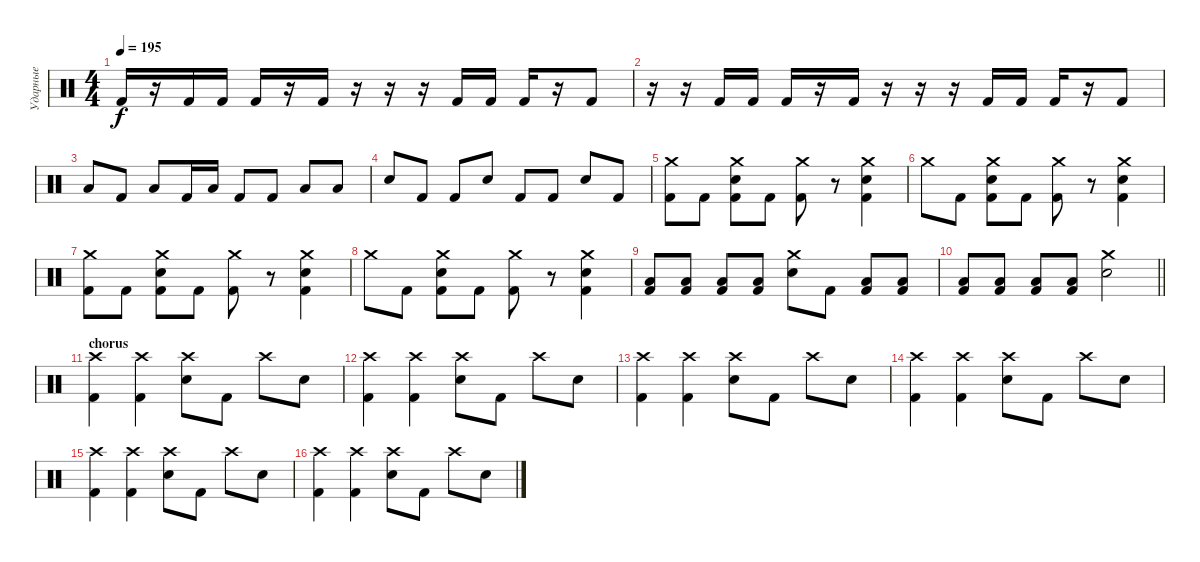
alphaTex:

\track ("Ударные" "Ударные") {instrument percussion}
\staff {score}
\articulation defaults
\ts (4 4)
\tempo 195
\clef neutral
\ks c "Kick (hit) 2".16{dy f}
r.16 "Kick (hit) 2".16 "Kick (hit) 2".16 "Kick (hit) 2".16 r.16 "Kick (hit) 2".16 r.16 r.16 r.16 "Kick (hit) 2".16 "Kick (hit) 2".16 "Kick (hit) 2".16 r.16 "Kick (hit) 2".8 |
r.16 r.16 "Kick (hit) 2".16 "Kick (hit) 2".16 "Kick (hit) 2".16 r.16 "Kick (hit) 2".16 r.16 r.16 r.16 "Kick (hit) 2".16 "Kick (hit) 2".16 "Kick (hit) 2".16 r.16 "Kick (hit) 2".8 |
"Low Tom (hit)".8 "Kick (hit) 2".8 "Low Tom (hit)".8 "Kick (hit) 2".16 "Low Tom (hit)".16 "Kick (hit) 2".8 "Kick (hit) 2".8 "Low Tom (hit)".8 "Low Tom (hit)".8 |
"Electric Snare (hit)".8 "Kick (hit) 2".8 "Kick (hit) 2".8 "Electric Snare (hit)".8 "Kick (hit) 2".8 "Kick (hit) 2".8 "Electric Snare (hit)".8 "Kick (hit) 2".8 |
("Crash medium (hit)" "Kick (hit) 2").8 "Kick (hit) 2".8 ("Crash medium (hit)" "Electric Snare (hit)" "Kick (hit) 2").8 "Kick (hit) 2".8 ("Crash medium (hit)" "Kick (hit) 2").8 r.8 ("Crash medium (hit)" "Electric Snare (hit)" "Kick (hit) 2").4 |
"Crash medium (hit)".8 "Kick (hit) 2".8 ("Crash medium (hit)" "Electric Snare (hit)" "Kick (hit) 2").8 "Kick (hit) 2".8 ("Crash medium (hit)" "Kick (hit) 2").8 r.8 ("Crash medium (hit)" "Electric Snare (hit)" "Kick (hit) 2").4 |
("Crash medium (hit)" "Kick (hit) 2").8 "Kick (hit) 2".8 ("Crash medium (hit)" "Electric Snare (hit)" "Kick (hit) 2").8 "Kick (hit) 2".8 ("Crash medium (hit)" "Kick (hit) 2").8 r.8 ("Crash medium (hit)" "Electric Snare (hit)" "Kick (hit) 2").4 |
"Crash medium (hit)".8 "Kick (hit) 2".8 ("Crash medium (hit)" "Electric Snare (hit)" "Kick (hit) 2").8 "Kick (hit) 2".8 ("Crash medium (hit)" "Kick (hit) 2").8 r.8 ("Crash medium (hit)" "Electric Snare (hit)" "Kick (hit) 2").4 |
("Low Tom (hit)" "Kick (hit) 2").8 ("Low Tom (hit)" "Kick (hit) 2").8 ("Low Tom (hit)" "Kick (hit) 2").8 ("Low Tom (hit)" "Kick (hit) 2").8 ("Crash medium (hit)" "Electric Snare (hit)").8 "Kick (hit) 2".8 ("Low Tom (hit)" "Kick (hit) 2").8 ("Low Tom (hit)" "Kick (hit) 2").8 |
\barLineRight lightlight
("Low Tom (hit)" "Kick (hit) 2").8 ("Low Tom (hit)" "Kick (hit) 2").8 ("Low Tom (hit)" "Kick (hit) 2").8 ("Low Tom (hit)" "Kick (hit) 2").8 ("Crash medium (hit)" "Electric Snare (hit)").2 |
\section ("" "chorus")
("Crash high (hit)" "Kick (hit) 2").4 ("Crash high (hit)" "Kick (hit) 2").4 ("Crash high (hit)" "Electric Snare (hit)").8 "Kick (hit) 2".8 "Crash high (hit)".8 "Electric Snare (hit)".8 |
("Crash high (hit)" "Kick (hit) 2").4 ("Crash high (hit)" "Kick (hit) 2").4 ("Crash high (hit)" "Electric Snare (hit)").8 "Kick (hit) 2".8 "Crash high (hit)".8 "Electric Snare (hit)".8 |
("Crash high (hit)" "Kick (hit) 2").4 ("Crash high (hit)" "Kick (hit) 2").4 ("Crash high (hit)" "Electric Snare (hit)").8 "Kick (hit) 2".8 "Crash high (hit)".8 "Electric Snare (hit)".8 |
("Crash high (hit)" "Kick (hit) 2").4 ("Crash high (hit)" "Kick (hit) 2").4 ("Crash high (hit)" "Electric Snare (hit)").8 "Kick (hit) 2".8 "Crash high (hit)".8 "Electric Snare (hit)".8 |
("Crash high (hit)" "Kick (hit) 2").4 ("Crash high (hit)" "Kick (hit) 2").4 ("Crash high (hit)" "Electric Snare (hit)").8 "Kick (hit) 2".8 "Crash high (hit)".8 "Electric Snare (hit)".8 |
("Crash high (hit)" "Kick (hit) 2").4 ("Crash high (hit)" "Kick (hit) 2").4 ("Crash high (hit)" "Electric Snare (hit)").8 "Kick (hit) 2".8 "Crash high (hit)".8 "Electric Snare (hit)".8
